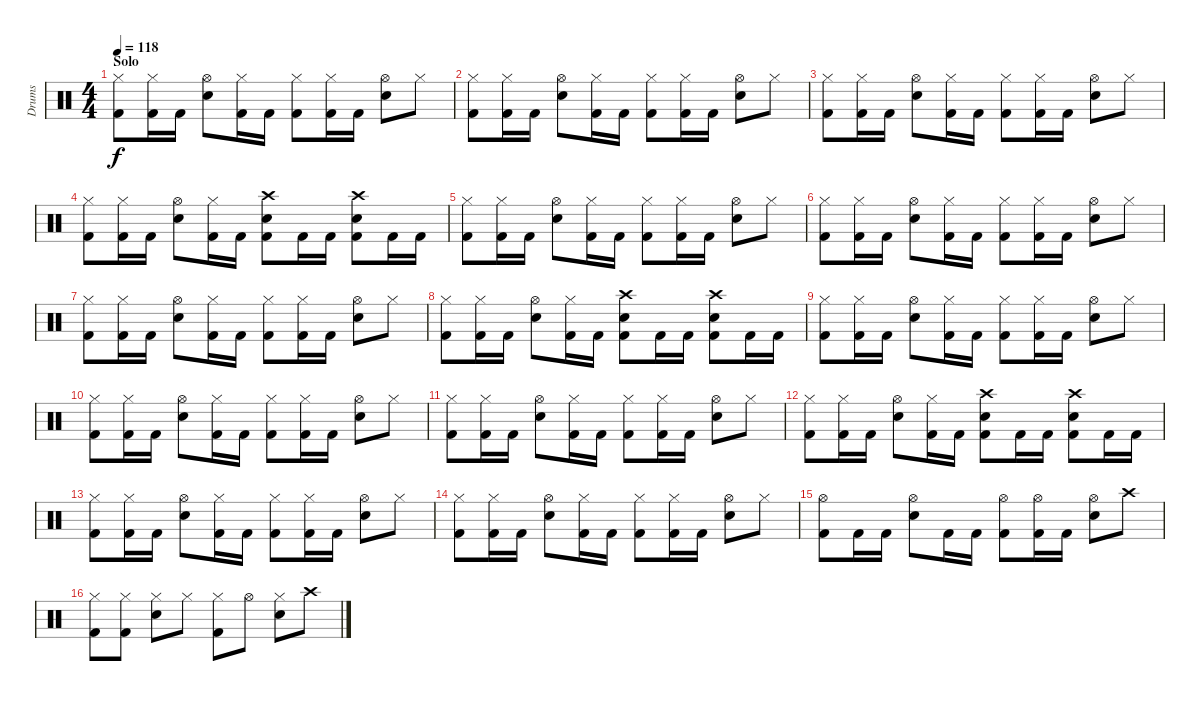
\track ("Drums" "Drums") {solo instrument percussion}
\staff {score}
\articulation defaults
\ts (4 4)
\section ("" "Solo")
\tempo 118
\clef neutral
\ks c
("Hi-Hat (closed)" "Kick (hit) 2").8{dy f} ("Hi-Hat (closed)" "Kick (hit) 2").16 "Kick (hit) 2".16 ("Hi-Hat (open)" "Snare (hit) 2").8 ("Hi-Hat (closed)" "Kick (hit) 2").16 "Kick (hit) 2".16 ("Hi-Hat (closed)" "Kick (hit) 2").8 ("Hi-Hat (closed)" "Kick (hit) 2").16 "Kick (hit) 2".16 ("Hi-Hat (open)" "Snare (hit) 2").8 "Hi-Hat (closed)".8 |
("Hi-Hat (closed)" "Kick (hit) 2").8 ("Hi-Hat (closed)" "Kick (hit) 2").16 "Kick (hit) 2".16 ("Hi-Hat (open)" "Snare (hit) 2").8 ("Hi-Hat (closed)" "Kick (hit) 2").16 "Kick (hit) 2".16 ("Hi-Hat (closed)" "Kick (hit) 2").8 ("Hi-Hat (closed)" "Kick (hit) 2").16 "Kick (hit) 2".16 ("Hi-Hat (open)" "Snare (hit) 2").8 "Hi-Hat (closed)".8 |
("Hi-Hat (closed)" "Kick (hit) 2").8 ("Hi-Hat (closed)" "Kick (hit) 2").16 "Kick (hit) 2".16 ("Hi-Hat (open)" "Snare (hit) 2").8 ("Hi-Hat (closed)" "Kick (hit) 2").16 "Kick (hit) 2".16 ("Hi-Hat (closed)" "Kick (hit) 2").8 ("Hi-Hat (closed)" "Kick (hit) 2").16 "Kick (hit) 2".16 ("Hi-Hat (open)" "Snare (hit) 2").8 "Hi-Hat (closed)".8 |
("Hi-Hat (closed)" "Kick (hit) 2").8 ("Hi-Hat (closed)" "Kick (hit) 2").16 "Kick (hit) 2".16 ("Hi-Hat (open)" "Snare (hit) 2").8 ("Hi-Hat (closed)" "Kick (hit) 2").16 "Kick (hit) 2".16 ("Crash high (hit)" "Kick (hit) 2" "Snare (hit) 2").8 "Kick (hit) 2".16 "Kick (hit) 2".16 ("Crash high (hit)" "Kick (hit) 2" "Snare (hit) 2").8 "Kick (hit) 2".16 "Kick (hit) 2".16 |
("Hi-Hat (closed)" "Kick (hit) 2").8 ("Hi-Hat (closed)" "Kick (hit) 2").16 "Kick (hit) 2".16 ("Hi-Hat (open)" "Snare (hit) 2").8 ("Hi-Hat (closed)" "Kick (hit) 2").16 "Kick (hit) 2".16 ("Hi-Hat (closed)" "Kick (hit) 2").8 ("Hi-Hat (closed)" "Kick (hit) 2").16 "Kick (hit) 2".16 ("Hi-Hat (open)" "Snare (hit) 2").8 "Hi-Hat (closed)".8 |
("Hi-Hat (closed)" "Kick (hit) 2").8 ("Hi-Hat (closed)" "Kick (hit) 2").16 "Kick (hit) 2".16 ("Hi-Hat (open)" "Snare (hit) 2").8 ("Hi-Hat (closed)" "Kick (hit) 2").16 "Kick (hit) 2".16 ("Hi-Hat (closed)" "Kick (hit) 2").8 ("Hi-Hat (closed)" "Kick (hit) 2").16 "Kick (hit) 2".16 ("Hi-Hat (open)" "Snare (hit) 2").8 "Hi-Hat (closed)".8 |
("Hi-Hat (closed)" "Kick (hit) 2").8 ("Hi-Hat (closed)" "Kick (hit) 2").16 "Kick (hit) 2".16 ("Hi-Hat (open)" "Snare (hit) 2").8 ("Hi-Hat (closed)" "Kick (hit) 2").16 "Kick (hit) 2".16 ("Hi-Hat (closed)" "Kick (hit) 2").8 ("Hi-Hat (closed)" "Kick (hit) 2").16 "Kick (hit) 2".16 ("Hi-Hat (open)" "Snare (hit) 2").8 "Hi-Hat (closed)".8 |
("Hi-Hat (closed)" "Kick (hit) 2").8 ("Hi-Hat (closed)" "Kick (hit) 2").16 "Kick (hit) 2".16 ("Hi-Hat (open)" "Snare (hit) 2").8 ("Hi-Hat (closed)" "Kick (hit) 2").16 "Kick (hit) 2".16 ("Crash high (hit)" "Kick (hit) 2" "Snare (hit) 2").8 "Kick (hit) 2".16 "Kick (hit) 2".16 ("Crash high (hit)" "Kick (hit) 2" "Snare (hit) 2").8 "Kick (hit) 2".16 "Kick (hit) 2".16 |
("Hi-Hat (closed)" "Kick (hit) 2").8 ("Hi-Hat (closed)" "Kick (hit) 2").16 "Kick (hit) 2".16 ("Hi-Hat (open)" "Snare (hit) 2").8 ("Hi-Hat (closed)" "Kick (hit) 2").16 "Kick (hit) 2".16 ("Hi-Hat (closed)" "Kick (hit) 2").8 ("Hi-Hat (closed)" "Kick (hit) 2").16 "Kick (hit) 2".16 ("Hi-Hat (open)" "Snare (hit) 2").8 "Hi-Hat (closed)".8 |
("Hi-Hat (closed)" "Kick (hit) 2").8 ("Hi-Hat (closed)" "Kick (hit) 2").16 "Kick (hit) 2".16 ("Hi-Hat (open)" "Snare (hit) 2").8 ("Hi-Hat (closed)" "Kick (hit) 2").16 "Kick (hit) 2".16 ("Hi-Hat (closed)" "Kick (hit) 2").8 ("Hi-Hat (closed)" "Kick (hit) 2").16 "Kick (hit) 2".16 ("Hi-Hat (open)" "Snare (hit) 2").8 "Hi-Hat (closed)".8 |
("Hi-Hat (closed)" "Kick (hit) 2").8 ("Hi-Hat (closed)" "Kick (hit) 2").16 "Kick (hit) 2".16 ("Hi-Hat (open)" "Snare (hit) 2").8 ("Hi-Hat (closed)" "Kick (hit) 2").16 "Kick (hit) 2".16 ("Hi-Hat (closed)" "Kick (hit) 2").8 ("Hi-Hat (closed)" "Kick (hit) 2").16 "Kick (hit) 2".16 ("Hi-Hat (open)" "Snare (hit) 2").8 "Hi-Hat (closed)".8 |
("Hi-Hat (closed)" "Kick (hit) 2").8 ("Hi-Hat (closed)" "Kick (hit) 2").16 "Kick (hit) 2".16 ("Hi-Hat (open)" "Snare (hit) 2").8 ("Hi-Hat (closed)" "Kick (hit) 2").16 "Kick (hit) 2".16 ("Crash high (hit)" "Kick (hit) 2" "Snare (hit) 2").8 "Kick (hit) 2".16 "Kick (hit) 2".16 ("Crash high (hit)" "Kick (hit) 2" "Snare (hit) 2").8 "Kick (hit) 2".16 "Kick (hit) 2".16 |
("Hi-Hat (closed)" "Kick (hit) 2").8 ("Hi-Hat (closed)" "Kick (hit) 2").16 "Kick (hit) 2".16 ("Hi-Hat (open)" "Snare (hit) 2").8 ("Hi-Hat (closed)" "Kick (hit) 2").16 "Kick (hit) 2".16 ("Hi-Hat (closed)" "Kick (hit) 2").8 ("Hi-Hat (closed)" "Kick (hit) 2").16 "Kick (hit) 2".16 ("Hi-Hat (open)" "Snare (hit) 2").8 "Hi-Hat (closed)".8 |
("Hi-Hat (closed)" "Kick (hit) 2").8 ("Hi-Hat (closed)" "Kick (hit) 2").16 "Kick (hit) 2".16 ("Hi-Hat (open)" "Snare (hit) 2").8 ("Hi-Hat (closed)" "Kick (hit) 2").16 "Kick (hit) 2".16 ("Hi-Hat (closed)" "Kick (hit) 2").8 ("Hi-Hat (closed)" "Kick (hit) 2").16 "Kick (hit) 2".16 ("Hi-Hat (open)" "Snare (hit) 2").8 "Hi-Hat (closed)".8 |
("Hi-Hat (open)" "Kick (hit) 2").8 "Kick (hit) 2".16 "Kick (hit) 2".16 ("Hi-Hat (open)" "Snare (hit) 2").8 "Kick (hit) 2".16 "Kick (hit) 2".16 ("Hi-Hat (open)" "Kick (hit) 2").8 ("Hi-Hat (open)" "Kick (hit) 2").16 "Kick (hit) 2".16 ("Hi-Hat (open)" "Snare (hit) 2").8 "Crash high (hit)".8 |
("Hi-Hat (closed)" "Kick (hit) 2").8 ("Hi-Hat (closed)" "Kick (hit) 2").8 ("Hi-Hat (closed)" "Snare (hit) 2").8 "Hi-Hat (closed)".8 ("Hi-Hat (closed)" "Kick (hit) 2").8 "Hi-Hat (open)".8 ("Hi-Hat (closed)" "Snare (hit) 2").8 "Crash high (hit)".8
